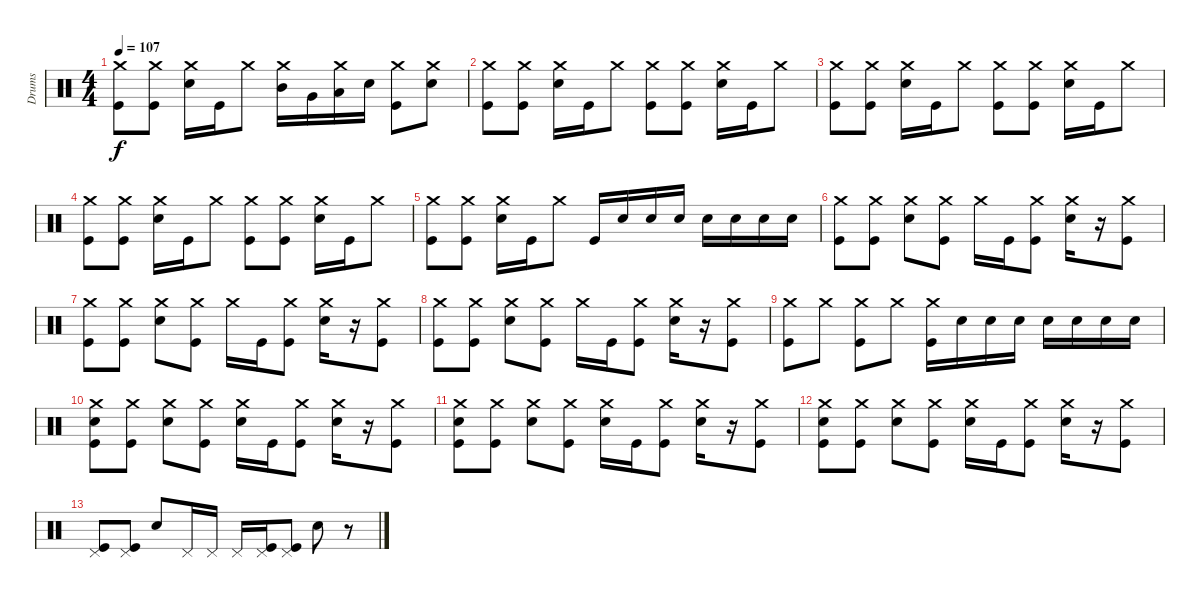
\track ("Drums" "Drums") {instrument percussion}
\staff {score}
\articulation defaults
\ts (4 4)
\tempo 107
\clef neutral
\ks c
("Crash medium (hit)" "Kick (hit)").8{dy f} ("Crash medium (hit)" "Kick (hit)").8 ("Crash medium (hit)" "Electric Snare (hit)").16 "Kick (hit)".16 "Crash medium (hit)".8 ("Crash medium (hit)" "Mid Tom (hit)").16 "Very Low Tom (hit)".16 ("Crash medium (hit)" "Low Floor Tom (hit)").16 "Electric Snare (hit)".16 ("Crash medium (hit)" "Kick (hit)").8 ("Crash medium (hit)" "Electric Snare (hit)").8 |
("Crash medium (hit)" "Kick (hit)").8 ("Crash medium (hit)" "Kick (hit)").8 ("Crash medium (hit)" "Electric Snare (hit)").16 "Kick (hit)".16 "Crash medium (hit)".8 ("Crash medium (hit)" "Kick (hit)").8 ("Crash medium (hit)" "Kick (hit)").8 ("Crash medium (hit)" "Electric Snare (hit)").16 "Kick (hit)".16 "Crash medium (hit)".8 |
("Crash medium (hit)" "Kick (hit)").8 ("Crash medium (hit)" "Kick (hit)").8 ("Crash medium (hit)" "Electric Snare (hit)").16 "Kick (hit)".16 "Crash medium (hit)".8 ("Crash medium (hit)" "Kick (hit)").8 ("Crash medium (hit)" "Kick (hit)").8 ("Crash medium (hit)" "Electric Snare (hit)").16 "Kick (hit)".16 "Crash medium (hit)".8 |
("Crash medium (hit)" "Kick (hit)").8 ("Crash medium (hit)" "Kick (hit)").8 ("Crash medium (hit)" "Electric Snare (hit)").16 "Kick (hit)".16 "Crash medium (hit)".8 ("Crash medium (hit)" "Kick (hit)").8 ("Crash medium (hit)" "Kick (hit)").8 ("Crash medium (hit)" "Electric Snare (hit)").16 "Kick (hit)".16 "Crash medium (hit)".8 |
("Crash medium (hit)" "Kick (hit)").8 ("Crash medium (hit)" "Kick (hit)").8 ("Crash medium (hit)" "Electric Snare (hit)").16 "Kick (hit)".16 "Crash medium (hit)".8 "Kick (hit)".16 "Electric Snare (hit)".16 "Electric Snare (hit)".16 "Electric Snare (hit)".16 "Electric Snare (hit)".16 "Electric Snare (hit)".16 "Electric Snare (hit)".16 "Electric Snare (hit)".16 |
("Crash medium (hit)" "Kick (hit)").8 ("Crash medium (hit)" "Kick (hit)").8 ("Crash medium (hit)" "Electric Snare (hit)").8 ("Crash medium (hit)" "Kick (hit)").8 "Crash medium (hit)".16 "Kick (hit)".16 ("Crash medium (hit)" "Kick (hit)").8 ("Crash medium (hit)" "Electric Snare (hit)").16 r.16 ("Crash medium (hit)" "Kick (hit)").8 |
("Crash medium (hit)" "Kick (hit)").8 ("Crash medium (hit)" "Kick (hit)").8 ("Crash medium (hit)" "Electric Snare (hit)").8 ("Crash medium (hit)" "Kick (hit)").8 "Crash medium (hit)".16 "Kick (hit)".16 ("Crash medium (hit)" "Kick (hit)").8 ("Crash medium (hit)" "Electric Snare (hit)").16 r.16 ("Crash medium (hit)" "Kick (hit)").8 |
("Crash medium (hit)" "Kick (hit)").8 ("Crash medium (hit)" "Kick (hit)").8 ("Crash medium (hit)" "Electric Snare (hit)").8 ("Crash medium (hit)" "Kick (hit)").8 "Crash medium (hit)".16 "Kick (hit)".16 ("Crash medium (hit)" "Kick (hit)").8 ("Crash medium (hit)" "Electric Snare (hit)").16 r.16 ("Crash medium (hit)" "Kick (hit)").8 |
("Crash medium (hit)" "Kick (hit)").8 "Crash medium (hit)".8 ("Crash medium (hit)" "Kick (hit)").8 "Crash medium (hit)".8 ("Crash medium (hit)" "Kick (hit)").16 "Electric Snare (hit)".16 "Electric Snare (hit)".16 "Electric Snare (hit)".16 "Electric Snare (hit)".16 "Electric Snare (hit)".16 "Electric Snare (hit)".16 "Electric Snare (hit)".16 |
("Crash medium (hit)" "Electric Snare (hit)" "Kick (hit)").8 ("Crash medium (hit)" "Kick (hit)").8 ("Crash medium (hit)" "Electric Snare (hit)").8 ("Crash medium (hit)" "Kick (hit)").8 ("Crash medium (hit)" "Electric Snare (hit)").16 "Kick (hit)".16 ("Crash medium (hit)" "Kick (hit)").8 ("Crash medium (hit)" "Electric Snare (hit)").16 r.16 ("Crash medium (hit)" "Kick (hit)").8 |
("Crash medium (hit)" "Electric Snare (hit)" "Kick (hit)").8 ("Crash medium (hit)" "Kick (hit)").8 ("Crash medium (hit)" "Electric Snare (hit)").8 ("Crash medium (hit)" "Kick (hit)").8 ("Crash medium (hit)" "Electric Snare (hit)").16 "Kick (hit)".16 ("Crash medium (hit)" "Kick (hit)").8 ("Crash medium (hit)" "Electric Snare (hit)").16 r.16 ("Crash medium (hit)" "Kick (hit)").8 |
("Crash medium (hit)" "Electric Snare (hit)" "Kick (hit)").8 ("Crash medium (hit)" "Kick (hit)").8 ("Crash medium (hit)" "Electric Snare (hit)").8 ("Crash medium (hit)" "Kick (hit)").8 ("Crash medium (hit)" "Electric Snare (hit)").16 "Kick (hit)".16 ("Crash medium (hit)" "Kick (hit)").8 ("Crash medium (hit)" "Electric Snare (hit)").16 r.16 ("Crash medium (hit)" "Kick (hit)").8 |
("Pedal Hi-Hat (hit)" "Kick (hit)").8 ("Pedal Hi-Hat (hit)" "Kick (hit)").8 "Electric Snare (hit)".8 "Pedal Hi-Hat (hit)".16 "Pedal Hi-Hat (hit)".16 "Pedal Hi-Hat (hit)".16 ("Pedal Hi-Hat (hit)" "Kick (hit)").16 ("Pedal Hi-Hat (hit)" "Kick (hit)").8 "Electric Snare (hit)".8 r.8
